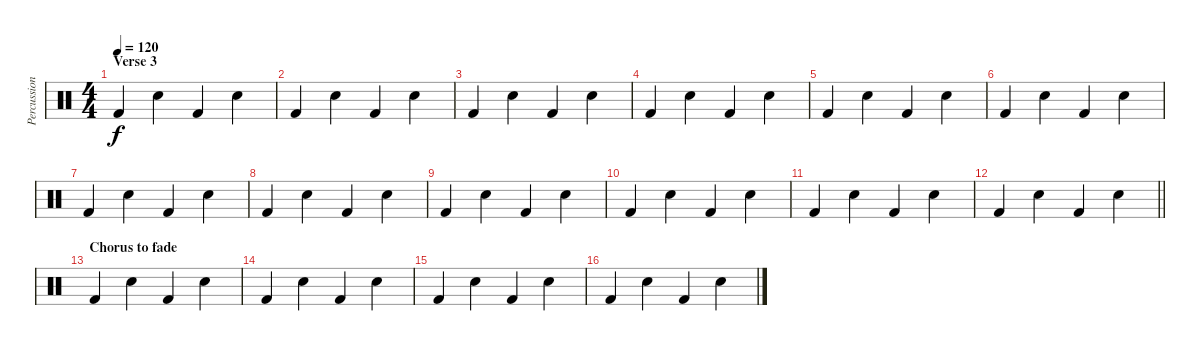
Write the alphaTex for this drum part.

\track ("Percussion" "Percussion") {instrument percussion}
\staff {score}
\articulation defaults
\ts (4 4)
\section ("" "Verse 3")
\tempo 120
\clef neutral
\ks c "Kick (hit) 2".4{dy f} "Snare (hit) 2".4 "Kick (hit) 2".4 "Snare (hit) 2".4
|
"Kick (hit) 2".4 "Snare (hit) 2".4 "Kick (hit) 2".4 "Snare (hit) 2".4 |
"Kick (hit) 2".4 "Snare (hit) 2".4 "Kick (hit) 2".4 "Snare (hit) 2".4 |
"Kick (hit) 2".4 "Snare (hit) 2".4 "Kick (hit) 2".4 "Snare (hit) 2".4 |
"Kick (hit) 2".4 "Snare (hit) 2".4 "Kick (hit) 2".4 "Snare (hit) 2".4 |
"Kick (hit) 2".4 "Snare (hit) 2".4 "Kick (hit) 2".4 "Snare (hit) 2".4 |
"Kick (hit) 2".4 "Snare (hit) 2".4 "Kick (hit) 2".4 "Snare (hit) 2".4 |
"Kick (hit) 2".4 "Snare (hit) 2".4 "Kick (hit) 2".4 "Snare (hit) 2".4 |
"Kick (hit) 2".4 "Snare (hit) 2".4 "Kick (hit) 2".4 "Snare (hit) 2".4 |
"Kick (hit) 2".4 "Snare (hit) 2".4 "Kick (hit) 2".4 "Snare (hit) 2".4 |
"Kick (hit) 2".4 "Snare (hit) 2".4 "Kick (hit) 2".4 "Snare (hit) 2".4 |
\barLineRight lightlight "Kick (hit) 2".4 "Snare (hit) 2".4 "Kick (hit) 2".4 "Snare (hit) 2".4
|
\section ("" "Chorus to fade")
"Kick (hit) 2".4 "Snare (hit) 2".4 "Kick (hit) 2".4 "Snare (hit) 2".4 |
"Kick (hit) 2".4 "Snare (hit) 2".4 "Kick (hit) 2".4 "Snare (hit) 2".4 |
"Kick (hit) 2".4 "Snare (hit) 2".4 "Kick (hit) 2".4 "Snare (hit) 2".4 |
"Kick (hit) 2".4 "Snare (hit) 2".4 "Kick (hit) 2".4 "Snare (hit) 2".4
